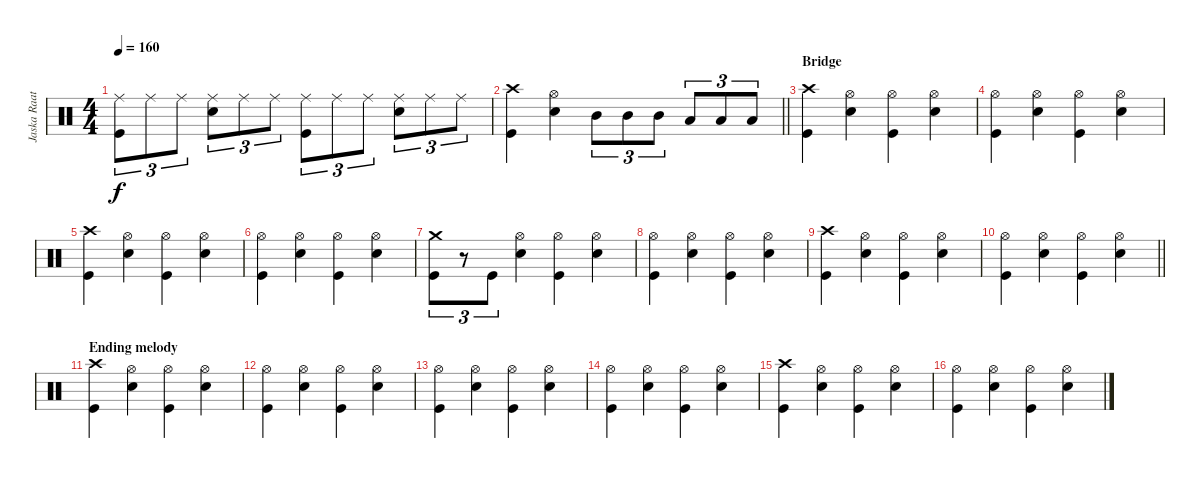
\track ("Jaska Raatikainen" "Jaska Raat") {instrument percussion}
\staff {score}
\articulation defaults
\ts (4 4)
\tempo 160
\clef neutral
\ks c
("Ride (middle)" "Kick (hit)").8{tu (3 2) dy f} "Ride (middle)".8{tu (3 2)} "Ride (middle)".8{tu (3 2)} ("Ride (middle)" "Electric Snare (hit)").8{tu (3 2)} "Ride (middle)".8{tu (3 2)} "Ride (middle)".8{tu (3 2)} ("Ride (middle)" "Kick (hit)").8{tu (3 2)} "Ride (middle)".8{tu (3 2)} "Ride (middle)".8{tu (3 2)} ("Ride (middle)" "Electric Snare (hit)").8{tu (3 2)} "Ride (middle)".8{tu (3 2)} "Ride (middle)".8{tu (3 2)} |
\barLineRight lightlight
("Crash high (hit)" "Kick (hit)").4 ("Hi-Hat (open)" "Electric Snare (hit)").4 "Mid Tom (hit)".8{tu (3 2)} "Mid Tom (hit)".8{tu (3 2)} "Mid Tom (hit)".8{tu (3 2)} "Low Tom (hit)".8{tu (3 2)} "Low Tom (hit)".8{tu (3 2)} "Low Tom (hit)".8{tu (3 2)} |
\section ("" "Bridge")
("Crash high (hit)" "Kick (hit)").4 ("Hi-Hat (open)" "Electric Snare (hit)").4 ("Hi-Hat (open)" "Kick (hit)").4 ("Hi-Hat (open)" "Electric Snare (hit)").4 |
("Hi-Hat (open)" "Kick (hit)").4 ("Hi-Hat (open)" "Electric Snare (hit)").4 ("Hi-Hat (open)" "Kick (hit)").4 ("Hi-Hat (open)" "Electric Snare (hit)").4 |
("Crash high (hit)" "Kick (hit)").4 ("Hi-Hat (open)" "Electric Snare (hit)").4 ("Hi-Hat (open)" "Kick (hit)").4 ("Hi-Hat (open)" "Electric Snare (hit)").4 |
("Hi-Hat (open)" "Kick (hit)").4 ("Hi-Hat (open)" "Electric Snare (hit)").4 ("Hi-Hat (open)" "Kick (hit)").4 ("Hi-Hat (open)" "Electric Snare (hit)").4 |
("Crash medium (hit)" "Kick (hit)").8{tu (3 2)} r.8{tu (3 2)} "Kick (hit)".8{tu (3 2)} ("Hi-Hat (open)" "Electric Snare (hit)").4 ("Hi-Hat (open)" "Kick (hit)").4 ("Hi-Hat (open)" "Electric Snare (hit)").4 |
("Hi-Hat (open)" "Kick (hit)").4 ("Hi-Hat (open)" "Electric Snare (hit)").4 ("Hi-Hat (open)" "Kick (hit)").4 ("Hi-Hat (open)" "Electric Snare (hit)").4 |
("Crash high (hit)" "Kick (hit)").4 ("Hi-Hat (open)" "Electric Snare (hit)").4 ("Hi-Hat (open)" "Kick (hit)").4 ("Hi-Hat (open)" "Electric Snare (hit)").4 |
\barLineRight lightlight
("Hi-Hat (open)" "Kick (hit)").4 ("Hi-Hat (open)" "Electric Snare (hit)").4 ("Hi-Hat (open)" "Kick (hit)").4 ("Hi-Hat (open)" "Electric Snare (hit)").4 |
\section ("" "Ending melody")
("Crash high (hit)" "Kick (hit)").4 ("Hi-Hat (open)" "Electric Snare (hit)").4 ("Hi-Hat (open)" "Kick (hit)").4 ("Hi-Hat (open)" "Electric Snare (hit)").4 |
("Hi-Hat (open)" "Kick (hit)").4 ("Hi-Hat (open)" "Electric Snare (hit)").4 ("Hi-Hat (open)" "Kick (hit)").4 ("Hi-Hat (open)" "Electric Snare (hit)").4 |
("Hi-Hat (open)" "Kick (hit)").4 ("Hi-Hat (open)" "Electric Snare (hit)").4 ("Hi-Hat (open)" "Kick (hit)").4 ("Hi-Hat (open)" "Electric Snare (hit)").4 |
("Hi-Hat (open)" "Kick (hit)").4 ("Hi-Hat (open)" "Electric Snare (hit)").4 ("Hi-Hat (open)" "Kick (hit)").4 ("Hi-Hat (open)" "Electric Snare (hit)").4 |
("Crash high (hit)" "Kick (hit)").4 ("Hi-Hat (open)" "Electric Snare (hit)").4 ("Hi-Hat (open)" "Kick (hit)").4 ("Hi-Hat (open)" "Electric Snare (hit)").4 |
("Hi-Hat (open)" "Kick (hit)").4 ("Hi-Hat (open)" "Electric Snare (hit)").4 ("Hi-Hat (open)" "Kick (hit)").4 ("Hi-Hat (open)" "Electric Snare (hit)").4
